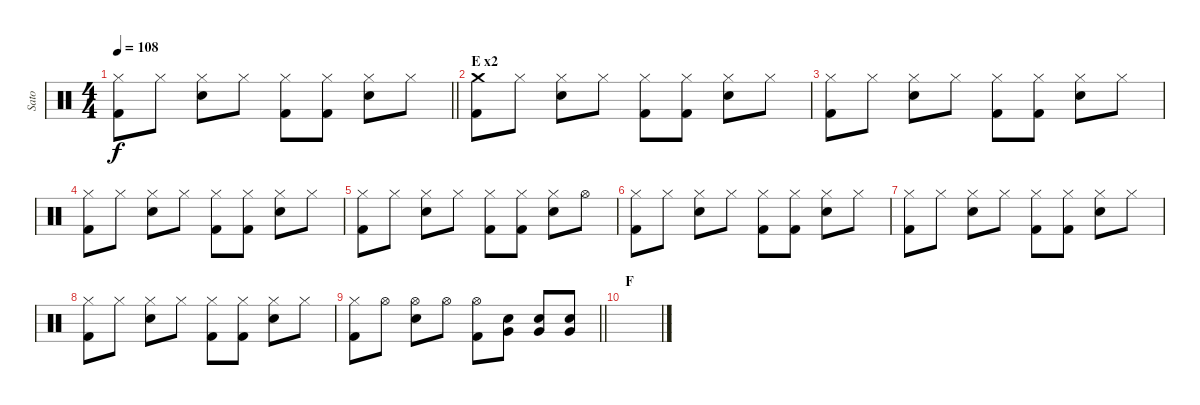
\track ("Sato" "Sato") {instrument percussion}
\staff {score}
\articulation defaults
\ts (4 4)
\tempo 108
\clef neutral
\barLineRight lightlight
\ks c
("Hi-Hat (closed)" "Kick (hit) 2").8{dy f} "Hi-Hat (closed)".8 ("Hi-Hat (closed)" "Electric Snare (hit)").8 "Hi-Hat (closed)".8 ("Hi-Hat (closed)" "Kick (hit) 2").8 ("Hi-Hat (closed)" "Kick (hit) 2").8 ("Hi-Hat (closed)" "Electric Snare (hit)").8 "Hi-Hat (closed)".8 |
\section ("" "E x2")
("Crash medium (hit)" "Kick (hit) 2").8 "Hi-Hat (closed)".8 ("Hi-Hat (closed)" "Electric Snare (hit)").8 "Hi-Hat (closed)".8 ("Hi-Hat (closed)" "Kick (hit) 2").8 ("Hi-Hat (closed)" "Kick (hit) 2").8 ("Hi-Hat (closed)" "Electric Snare (hit)").8 "Hi-Hat (closed)".8 |
("Hi-Hat (closed)" "Kick (hit) 2").8 "Hi-Hat (closed)".8 ("Hi-Hat (closed)" "Electric Snare (hit)").8 "Hi-Hat (closed)".8 ("Hi-Hat (closed)" "Kick (hit) 2").8 ("Hi-Hat (closed)" "Kick (hit) 2").8 ("Hi-Hat (closed)" "Electric Snare (hit)").8 "Hi-Hat (closed)".8 |
("Hi-Hat (closed)" "Kick (hit) 2").8 "Hi-Hat (closed)".8 ("Hi-Hat (closed)" "Electric Snare (hit)").8 "Hi-Hat (closed)".8 ("Hi-Hat (closed)" "Kick (hit) 2").8 ("Hi-Hat (closed)" "Kick (hit) 2").8 ("Hi-Hat (closed)" "Electric Snare (hit)").8 "Hi-Hat (closed)".8 |
("Hi-Hat (closed)" "Kick (hit) 2").8 "Hi-Hat (closed)".8 ("Hi-Hat (closed)" "Electric Snare (hit)").8 "Hi-Hat (closed)".8 ("Hi-Hat (closed)" "Kick (hit) 2").8 ("Hi-Hat (closed)" "Kick (hit) 2").8 ("Hi-Hat (closed)" "Electric Snare (hit)").8 "Hi-Hat (open)".8 |
("Hi-Hat (closed)" "Kick (hit) 2").8 "Hi-Hat (closed)".8 ("Hi-Hat (closed)" "Electric Snare (hit)").8 "Hi-Hat (closed)".8 ("Hi-Hat (closed)" "Kick (hit) 2").8 ("Hi-Hat (closed)" "Kick (hit) 2").8 ("Hi-Hat (closed)" "Electric Snare (hit)").8 "Hi-Hat (closed)".8 |
("Hi-Hat (closed)" "Kick (hit) 2").8 "Hi-Hat (closed)".8 ("Hi-Hat (closed)" "Electric Snare (hit)").8 "Hi-Hat (closed)".8 ("Hi-Hat (closed)" "Kick (hit) 2").8 ("Hi-Hat (closed)" "Kick (hit) 2").8 ("Hi-Hat (closed)" "Electric Snare (hit)").8 "Hi-Hat (closed)".8 |
("Hi-Hat (closed)" "Kick (hit) 2").8 "Hi-Hat (closed)".8 ("Hi-Hat (closed)" "Electric Snare (hit)").8 "Hi-Hat (closed)".8 ("Hi-Hat (closed)" "Kick (hit) 2").8 ("Hi-Hat (closed)" "Kick (hit) 2").8 ("Hi-Hat (closed)" "Electric Snare (hit)").8 "Hi-Hat (closed)".8 |
\barLineRight lightlight
("Hi-Hat (closed)" "Kick (hit) 2").8 "Hi-Hat (open)".8 ("Hi-Hat (open)" "Electric Snare (hit)").8 "Hi-Hat (open)".8 ("Hi-Hat (open)" "Kick (hit) 2").8 ("Electric Snare (hit)" "Very Low Tom (hit)").8 ("Electric Snare (hit)" "Very Low Tom (hit)").8 ("Electric Snare (hit)" "Very Low Tom (hit)").8 |
\section ("" "F")
